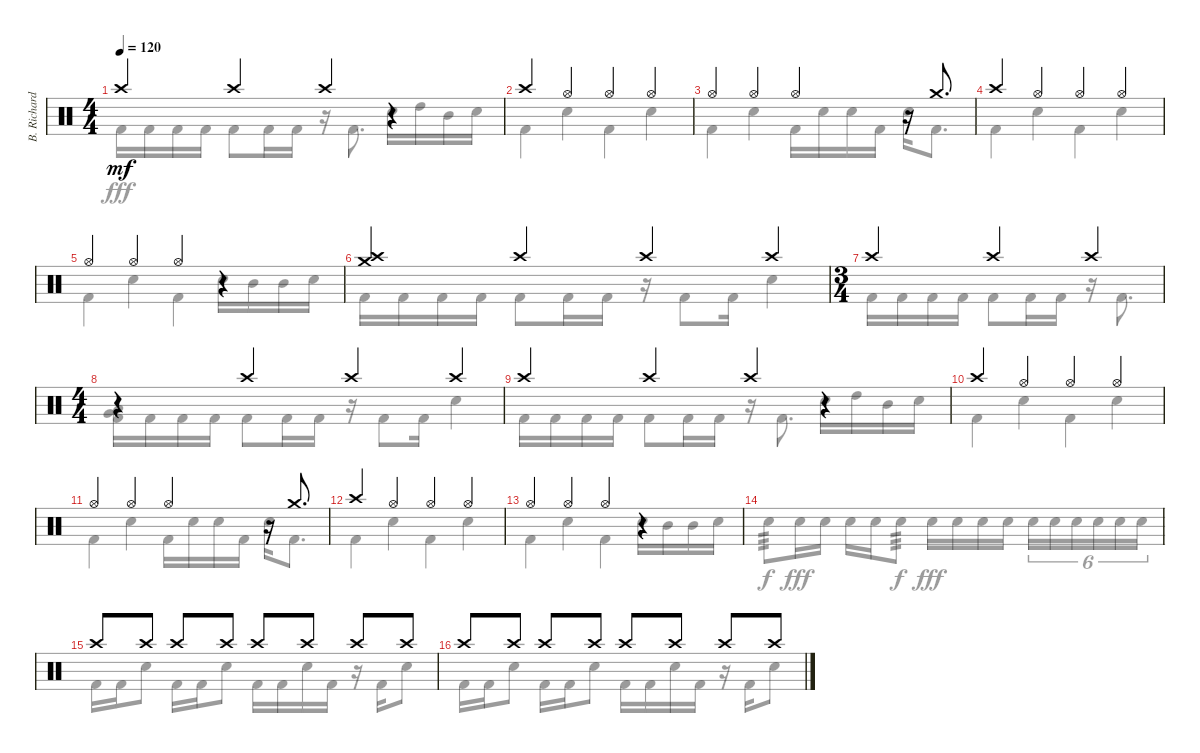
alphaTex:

\track ("B. Richardson Drums" "B. Richard") {instrument percussion}
\staff {score}
\articulation defaults
\voice
\ts (4 4)
\tempo 120
\clef neutral
\ks c "Crash high (hit)".4{dy mf} "Crash high (hit)".4 "Crash high (hit)".4
r.4 |
"Crash high (hit)".4 "Hi-Hat (open)".4 "Hi-Hat (open)".4 "Hi-Hat (open)".4 |
"Hi-Hat (open)".4 "Hi-Hat (open)".4 "Hi-Hat (open)".4 r.16 "Crash medium (hit)".8{d} |
"Crash high (hit)".4 "Hi-Hat (open)".4 "Hi-Hat (open)".4 "Hi-Hat (open)".4 |
"Hi-Hat (open)".4 "Hi-Hat (open)".4 "Hi-Hat (open)".4 r.4 |
("Crash high (hit)" "Crash medium (hit)").4 "Crash high (hit)".4 "Crash high (hit)".4 "Crash high (hit)".4 |
\ts (3 4)
"Crash high (hit)".4 "Crash high (hit)".4 "Crash high (hit)".4 |
\ts (4 4)
r.4 "Crash high (hit)".4 "Crash high (hit)".4 "Crash high (hit)".4 |
"Crash high (hit)".4 "Crash high (hit)".4 "Crash high (hit)".4 r.4 |
"Crash high (hit)".4 "Hi-Hat (open)".4 "Hi-Hat (open)".4 "Hi-Hat (open)".4 |
"Hi-Hat (open)".4 "Hi-Hat (open)".4 "Hi-Hat (open)".4 r.16 "Crash medium (hit)".8{d} |
"Crash high (hit)".4 "Hi-Hat (open)".4 "Hi-Hat (open)".4 "Hi-Hat (open)".4 |
"Hi-Hat (open)".4 "Hi-Hat (open)".4 "Hi-Hat (open)".4 r.4 |
|
"Crash high (hit)".8 "Crash high (hit)".8 "Crash high (hit)".8 "Crash high (hit)".8 "Crash high (hit)".8 "Crash high (hit)".8 "Crash high (hit)".8 "Crash high (hit)".8 |
"Crash high (hit)".8 "Crash high (hit)".8 "Crash high (hit)".8 "Crash high (hit)".8 "Crash high (hit)".8 "Crash high (hit)".8 "Crash high (hit)".8 "Crash high (hit)".8
\voice
\clef neutral
\ottava regular
\simile none
\ks c "Kick (hit) 2".16{dy fff} "Kick (hit) 2".16 "Kick (hit) 2".16 "Kick (hit) 2".16 "Kick (hit) 2".8 "Kick (hit) 2".16 "Kick (hit) 2".16
r.16 "Kick (hit) 2".8{d} "Electric Snare (hit)".16 "High Tom (hit)".16 "Mid Tom (hit)".16 "Electric Snare (hit)".16 |
"Kick (hit) 2".4 "Electric Snare (hit)".4 "Kick (hit) 2".4 "Electric Snare (hit)".4 |
"Kick (hit) 2".4 "Electric Snare (hit)".4 "Kick (hit) 2".16 "Electric Snare (hit)".16 "Electric Snare (hit)".16 "Kick (hit) 2".16 "Electric Snare (hit)".16 "Kick (hit) 2".8{d} |
"Kick (hit) 2".4 "Electric Snare (hit)".4 "Kick (hit) 2".4 "Electric Snare (hit)".4 |
"Kick (hit) 2".4 "Electric Snare (hit)".4 "Kick (hit) 2".4 "Electric Snare (hit)".16 "Mid Tom (hit)".16 "Mid Tom (hit)".16 "Electric Snare (hit)".16 |
"Kick (hit) 2".16 "Kick (hit) 2".16 "Kick (hit) 2".16 "Kick (hit) 2".16 "Kick (hit) 2".8 "Kick (hit) 2".16 "Kick (hit) 2".16 r.16 "Kick (hit) 2".8 "Kick (hit) 2".16 "Electric Snare (hit)".4 |
"Kick (hit) 2".16 "Kick (hit) 2".16 "Kick (hit) 2".16 "Kick (hit) 2".16 "Kick (hit) 2".8 "Kick (hit) 2".16 "Kick (hit) 2".16 r.16 "Kick (hit) 2".8{d} |
("Low Tom (hit)" "Very Low Tom (hit)" "Kick (hit) 2").16 "Kick (hit) 2".16 "Kick (hit) 2".16 "Kick (hit) 2".16 "Kick (hit) 2".8 "Kick (hit) 2".16 "Kick (hit) 2".16 r.16 "Kick (hit) 2".8 "Kick (hit) 2".16 "Electric Snare (hit)".4 |
"Kick (hit) 2".16 "Kick (hit) 2".16 "Kick (hit) 2".16 "Kick (hit) 2".16 "Kick (hit) 2".8 "Kick (hit) 2".16 "Kick (hit) 2".16 r.16 "Kick (hit) 2".8{d} "Electric Snare (hit)".16 "High Tom (hit)".16 "Mid Tom (hit)".16 "Electric Snare (hit)".16 |
"Kick (hit) 2".4 "Electric Snare (hit)".4 "Kick (hit) 2".4 "Electric Snare (hit)".4 |
"Kick (hit) 2".4 "Electric Snare (hit)".4 "Kick (hit) 2".16 "Electric Snare (hit)".16 "Electric Snare (hit)".16 "Kick (hit) 2".16 "Electric Snare (hit)".16 "Kick (hit) 2".8{d} |
"Kick (hit) 2".4 "Electric Snare (hit)".4 "Kick (hit) 2".4 "Electric Snare (hit)".4 |
"Kick (hit) 2".4 "Electric Snare (hit)".4 "Kick (hit) 2".4 "Electric Snare (hit)".16 "Mid Tom (hit)".16 "Mid Tom (hit)".16 "Electric Snare (hit)".16 |
"Electric Snare (hit)".8{tp 3 dy f} "Electric Snare (hit)".16{dy fff} "Electric Snare (hit)".16 "Electric Snare (hit)".16 "Electric Snare (hit)".16 "Electric Snare (hit)".8{tp 3 dy f} "Electric Snare (hit)".16{dy fff} "Electric Snare (hit)".16 "Electric Snare (hit)".16 "Electric Snare (hit)".16 "Electric Snare (hit)".16{tu (6 4)} "Electric Snare (hit)".16{tu (6 4)} "Electric Snare (hit)".16{tu (6 4)} "Electric Snare (hit)".16{tu (6 4)} "Electric Snare (hit)".16{tu (6 4)} "Electric Snare (hit)".16{tu (6 4)} |
"Kick (hit) 2".16 "Kick (hit) 2".16 "Electric Snare (hit)".8 "Kick (hit) 2".16 "Kick (hit) 2".16 "Electric Snare (hit)".8 "Kick (hit) 2".16 "Kick (hit) 2".16 "Electric Snare (hit)".16 "Kick (hit) 2".16 r.16 "Kick (hit) 2".16 "Electric Snare (hit)".8 |
"Kick (hit) 2".16 "Kick (hit) 2".16 "Electric Snare (hit)".8 "Kick (hit) 2".16 "Kick (hit) 2".16 "Electric Snare (hit)".8 "Kick (hit) 2".16 "Kick (hit) 2".16 "Electric Snare (hit)".16 "Kick (hit) 2".16 r.16 "Kick (hit) 2".16 "Electric Snare (hit)".8
